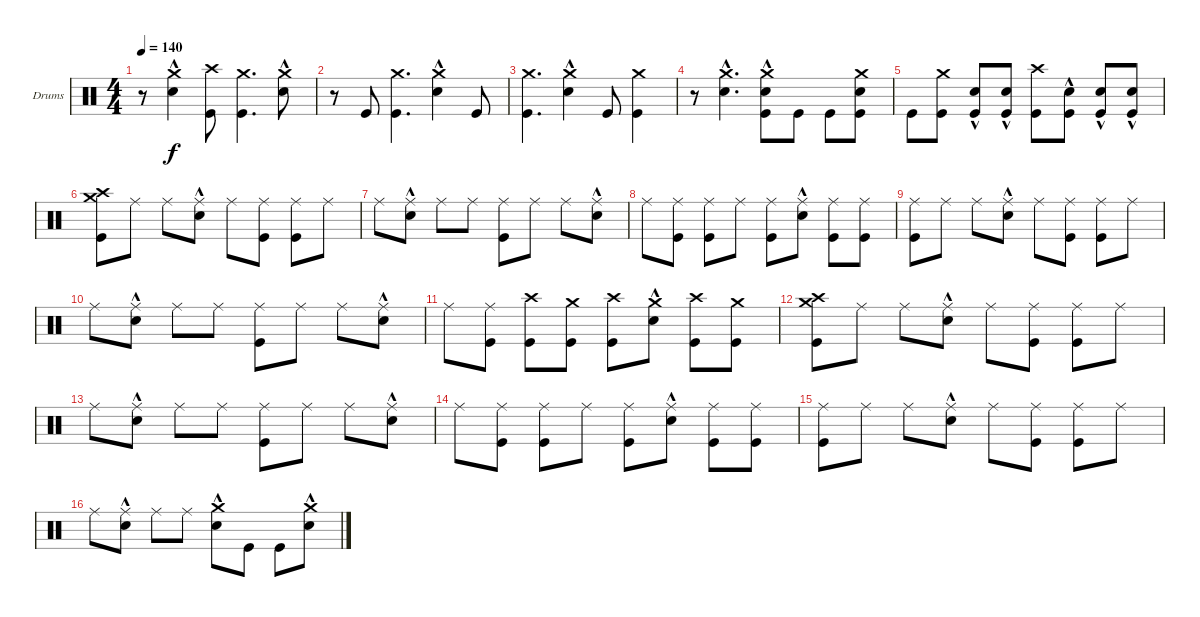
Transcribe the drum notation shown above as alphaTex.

\bracketExtendMode groupsimilarinstruments
\firstSystemTrackNameOrientation horizontal
\otherSystemsTrackNameOrientation horizontal
\track ("Drumkit (Christoph)" "Drums") {instrument percussion}
\staff {score}
\articulation defaults
\ts (4 4)
\tempo 140
\clef neutral
\ks c
r.8{dy f} ("Crash medium (hit)" "Snare (hit) 2"{hac}).4 ("Crash high (hit)" "Kick (hit)").8 ("Crash medium (hit)" "Kick (hit)").4{d} ("Crash medium (hit)" "Snare (hit) 2"{hac}).8 |
r.8 "Kick (hit)".8 ("Crash medium (hit)" "Kick (hit)").4{d} ("Crash medium (hit)" "Snare (hit) 2"{hac}).4 "Kick (hit)".8 |
("Crash medium (hit)" "Kick (hit)").4{d} ("Crash medium (hit)" "Snare (hit) 2"{hac}).4 "Kick (hit)".8 ("Crash medium (hit)" "Kick (hit)").4 |
r.8 ("Crash medium (hit)" "Snare (hit) 2"{hac}).4{d} ("Crash medium (hit)" "Kick (hit)" "Snare (hit) 2"{hac}).8 "Kick (hit)".8 "Kick (hit)".8 ("Crash medium (hit)" "Kick (hit)" "Snare (hit) 2").8 |
"Kick (hit)".8 ("Crash medium (hit)" "Kick (hit)").8 ("Kick (hit)" "Snare (hit) 2"{hac}).8 ("Kick (hit)" "Snare (hit) 2"{hac}).8 ("Crash high (hit)" "Kick (hit)").8 ("Kick (hit)" "Snare (hit) 2"{hac}).8 ("Kick (hit)" "Snare (hit) 2"{hac}).8 ("Kick (hit)" "Snare (hit) 2"{hac}).8 |
("Crash medium (hit)" "Kick (hit)" "Crash high (hit)").8 "Ride (middle)".8 "Ride (middle)".8 ("Ride (middle)" "Snare (hit) 2"{hac}).8 "Ride (middle)".8 ("Ride (middle)" "Kick (hit)").8 ("Ride (middle)" "Kick (hit)").8 "Ride (middle)".8 |
"Ride (middle)".8 ("Ride (middle)" "Snare (hit) 2"{hac}).8 "Ride (middle)".8 "Ride (middle)".8 ("Ride (middle)" "Kick (hit)").8 "Ride (middle)".8 "Ride (middle)".8 ("Ride (middle)" "Snare (hit) 2"{hac}).8 |
"Ride (middle)".8 ("Ride (middle)" "Kick (hit)").8 ("Ride (middle)" "Kick (hit)").8 "Ride (middle)".8 ("Ride (middle)" "Kick (hit)").8 ("Ride (middle)" "Snare (hit) 2"{hac}).8 ("Ride (middle)" "Kick (hit)").8 ("Ride (middle)" "Kick (hit)").8 |
("Ride (middle)" "Kick (hit)").8 "Ride (middle)".8 "Ride (middle)".8 ("Ride (middle)" "Snare (hit) 2"{hac}).8 "Ride (middle)".8 ("Ride (middle)" "Kick (hit)").8 ("Ride (middle)" "Kick (hit)").8 "Ride (middle)".8 |
"Ride (middle)".8 ("Ride (middle)" "Snare (hit) 2"{hac}).8 "Ride (middle)".8 "Ride (middle)".8 ("Ride (middle)" "Kick (hit)").8 "Ride (middle)".8 "Ride (middle)".8 ("Ride (middle)" "Snare (hit) 2"{hac}).8 |
"Ride (middle)".8 ("Ride (middle)" "Kick (hit)").8 ("Crash high (hit)" "Kick (hit)").8 ("Crash medium (hit)" "Kick (hit)").8 ("Crash high (hit)" "Kick (hit)").8 ("Crash medium (hit)" "Snare (hit) 2"{hac}).8 ("Crash high (hit)" "Kick (hit)").8 ("Crash medium (hit)" "Kick (hit)").8 |
("Crash medium (hit)" "Kick (hit)" "Crash high (hit)").8 "Ride (middle)".8 "Ride (middle)".8 ("Ride (middle)" "Snare (hit) 2"{hac}).8 "Ride (middle)".8 ("Ride (middle)" "Kick (hit)").8 ("Ride (middle)" "Kick (hit)").8 "Ride (middle)".8 |
"Ride (middle)".8 ("Ride (middle)" "Snare (hit) 2"{hac}).8 "Ride (middle)".8 "Ride (middle)".8 ("Ride (middle)" "Kick (hit)").8 "Ride (middle)".8 "Ride (middle)".8 ("Ride (middle)" "Snare (hit) 2"{hac}).8 |
"Ride (middle)".8 ("Ride (middle)" "Kick (hit)").8 ("Ride (middle)" "Kick (hit)").8 "Ride (middle)".8 ("Ride (middle)" "Kick (hit)").8 ("Ride (middle)" "Snare (hit) 2"{hac}).8 ("Ride (middle)" "Kick (hit)").8 ("Ride (middle)" "Kick (hit)").8 |
("Ride (middle)" "Kick (hit)").8 "Ride (middle)".8 "Ride (middle)".8 ("Ride (middle)" "Snare (hit) 2"{hac}).8 "Ride (middle)".8 ("Ride (middle)" "Kick (hit)").8 ("Ride (middle)" "Kick (hit)").8 "Ride (middle)".8 |
"Ride (middle)".8 ("Ride (middle)" "Snare (hit) 2"{hac}).8 "Ride (middle)".8 "Ride (middle)".8 ("Crash medium (hit)" "Snare (hit) 2"{hac}).8 "Kick (hit)".8 "Kick (hit)".8 ("Crash medium (hit)" "Snare (hit) 2"{hac}).8
